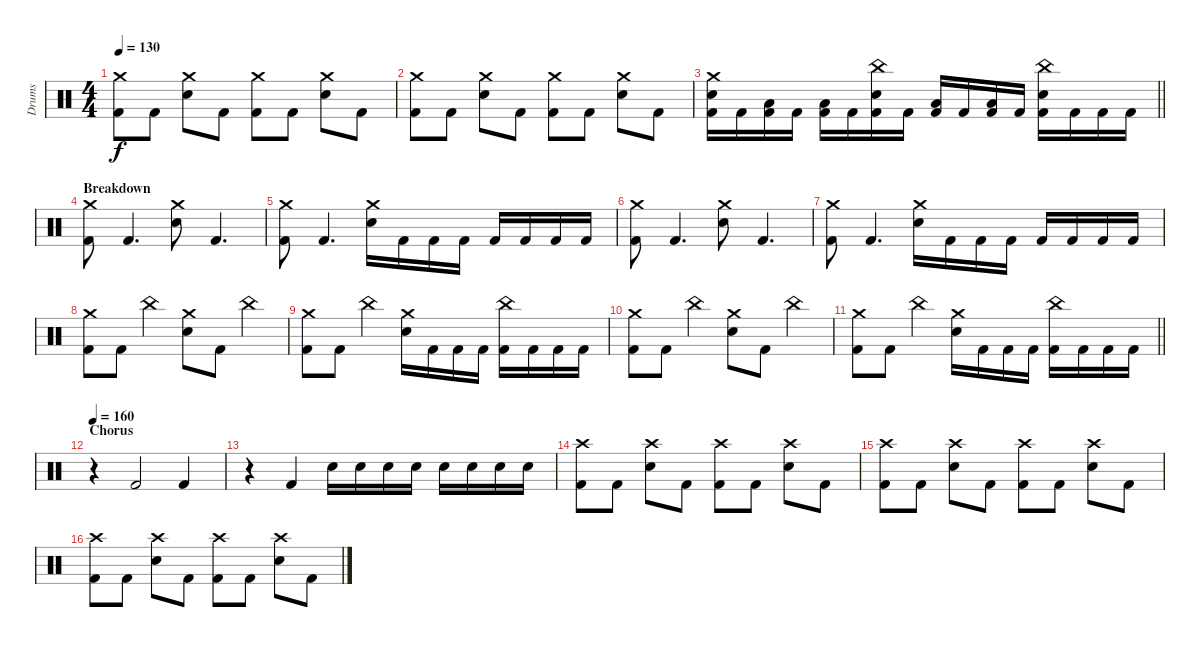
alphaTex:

\track ("Drums" "Drums") {instrument percussion}
\staff {score}
\articulation defaults
\ts (4 4)
\tempo 130
\clef neutral
\ks c
("Crash medium (hit)" "Kick (hit) 2").8{dy f} "Kick (hit) 2".8 ("Crash medium (hit)" "Electric Snare (hit)").8 "Kick (hit) 2".8 ("Crash medium (hit)" "Kick (hit) 2").8 "Kick (hit) 2".8 ("Crash medium (hit)" "Electric Snare (hit)").8 "Kick (hit) 2".8 |
("Crash medium (hit)" "Kick (hit) 2").8 "Kick (hit) 2".8 ("Crash medium (hit)" "Electric Snare (hit)").8 "Kick (hit) 2".8 ("Crash medium (hit)" "Kick (hit) 2").8 "Kick (hit) 2".8 ("Crash medium (hit)" "Electric Snare (hit)").8 "Kick (hit) 2".8 |
\barLineRight lightlight
("Crash medium (hit)" "Electric Snare (hit)" "Kick (hit) 2").16 "Kick (hit) 2".16 ("Low Floor Tom (hit)" "Kick (hit) 2").16 "Kick (hit) 2".16 ("Low Floor Tom (hit)" "Kick (hit) 2").16 "Kick (hit) 2".16 ("China (hit)" "Electric Snare (hit)" "Kick (hit) 2").16 "Kick (hit) 2".16 ("Low Floor Tom (hit)" "Kick (hit) 2").16 "Kick (hit) 2".16 ("Low Floor Tom (hit)" "Kick (hit) 2").16 "Kick (hit) 2".16 ("China (hit)" "Electric Snare (hit)" "Kick (hit) 2").16 "Kick (hit) 2".16 "Kick (hit) 2".16 "Kick (hit) 2".16 |
\section ("" "Breakdown")
("Crash medium (hit)" "Kick (hit) 2").8 "Kick (hit) 2".4{d} ("Crash medium (hit)" "Electric Snare (hit)").8 "Kick (hit) 2".4{d} |
("Crash medium (hit)" "Kick (hit) 2").8 "Kick (hit) 2".4{d} ("Crash medium (hit)" "Electric Snare (hit)").16 "Kick (hit) 2".16 "Kick (hit) 2".16 "Kick (hit) 2".16 "Kick (hit) 2".16 "Kick (hit) 2".16 "Kick (hit) 2".16 "Kick (hit) 2".16 |
("Crash medium (hit)" "Kick (hit) 2").8 "Kick (hit) 2".4{d} ("Crash medium (hit)" "Electric Snare (hit)").8 "Kick (hit) 2".4{d} |
("Crash medium (hit)" "Kick (hit) 2").8 "Kick (hit) 2".4{d} ("Crash medium (hit)" "Electric Snare (hit)").16 "Kick (hit) 2".16 "Kick (hit) 2".16 "Kick (hit) 2".16 "Kick (hit) 2".16 "Kick (hit) 2".16 "Kick (hit) 2".16 "Kick (hit) 2".16 |
("Crash medium (hit)" "Kick (hit) 2").8 "Kick (hit) 2".8 "China (hit)".4 ("Crash medium (hit)" "Electric Snare (hit)").8 "Kick (hit) 2".8 "China (hit)".4 |
("Crash medium (hit)" "Kick (hit) 2").8 "Kick (hit) 2".8 "China (hit)".4 ("Crash medium (hit)" "Electric Snare (hit)").16 "Kick (hit) 2".16 "Kick (hit) 2".16 "Kick (hit) 2".16 ("China (hit)" "Kick (hit) 2").16 "Kick (hit) 2".16 "Kick (hit) 2".16 "Kick (hit) 2".16 |
("Crash medium (hit)" "Kick (hit) 2").8 "Kick (hit) 2".8 "China (hit)".4 ("Crash medium (hit)" "Electric Snare (hit)").8 "Kick (hit) 2".8 "China (hit)".4 |
\barLineRight lightlight
("Crash medium (hit)" "Kick (hit) 2").8 "Kick (hit) 2".8 "China (hit)".4 ("Crash medium (hit)" "Electric Snare (hit)").16 "Kick (hit) 2".16 "Kick (hit) 2".16 "Kick (hit) 2".16 ("China (hit)" "Kick (hit) 2").16 "Kick (hit) 2".16 "Kick (hit) 2".16 "Kick (hit) 2".16 |
\section ("" "Chorus")
\tempo 160
r.4 "Kick (hit) 2".2 "Kick (hit) 2".4 |
r.4 "Kick (hit) 2".4 "Electric Snare (hit)".16 "Electric Snare (hit)".16 "Electric Snare (hit)".16 "Electric Snare (hit)".16 "Electric Snare (hit)".16 "Electric Snare (hit)".16 "Electric Snare (hit)".16 "Electric Snare (hit)".16 |
("Crash high (hit)" "Kick (hit) 2").8 "Kick (hit) 2".8 ("Crash high (hit)" "Electric Snare (hit)").8 "Kick (hit) 2".8 ("Crash high (hit)" "Kick (hit) 2").8 "Kick (hit) 2".8 ("Crash high (hit)" "Electric Snare (hit)").8 "Kick (hit) 2".8 |
("Crash high (hit)" "Kick (hit) 2").8 "Kick (hit) 2".8 ("Crash high (hit)" "Electric Snare (hit)").8 "Kick (hit) 2".8 ("Crash high (hit)" "Kick (hit) 2").8 "Kick (hit) 2".8 ("Crash high (hit)" "Electric Snare (hit)").8 "Kick (hit) 2".8 |
("Crash high (hit)" "Kick (hit) 2").8 "Kick (hit) 2".8 ("Crash high (hit)" "Electric Snare (hit)").8 "Kick (hit) 2".8 ("Crash high (hit)" "Kick (hit) 2").8 "Kick (hit) 2".8 ("Crash high (hit)" "Electric Snare (hit)").8 "Kick (hit) 2".8
